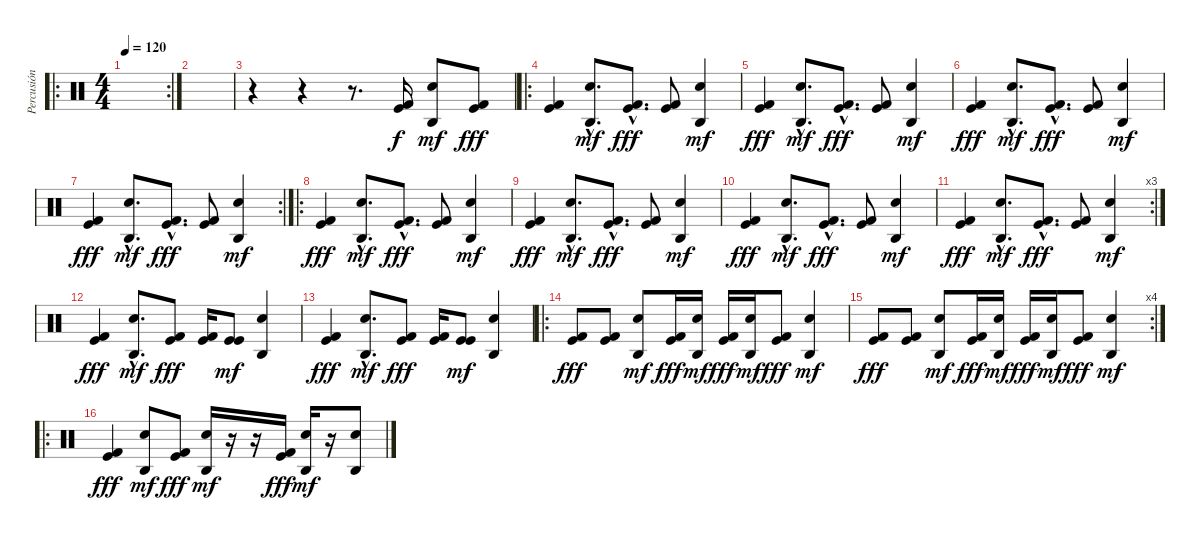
\track ("Percusión" "Percusión") {instrument percussion}
\staff {score}
\articulation defaults
\ro
\rc 2
\ts (4 4)
\tempo 120
\clef neutral
\ks c
|
|
r.4 r.4 r.8{d} ("Kick (hit)" "Kick (hit) 2").16 ("Electric Snare (hit)" "Agogo high (hit)").8{dy mf} ("Kick (hit)" "Kick (hit) 2").8{dy fff} |
\ro
("Kick (hit)" "Kick (hit) 2").4 ("Electric Snare (hit)"{hac} "Agogo high (hit)"{hac}).8{d dy mf} ("Kick (hit)"{hac} "Kick (hit) 2"{hac}).8{d dy fff} ("Kick (hit)" "Kick (hit) 2").8 ("Electric Snare (hit)" "Agogo high (hit)").4{dy mf} |
("Kick (hit)" "Kick (hit) 2").4{dy fff} ("Electric Snare (hit)"{hac} "Agogo high (hit)"{hac}).8{d dy mf} ("Kick (hit)"{hac} "Kick (hit) 2"{hac}).8{d dy fff} ("Kick (hit)" "Kick (hit) 2").8 ("Electric Snare (hit)" "Agogo high (hit)").4{dy mf} |
("Kick (hit)" "Kick (hit) 2").4{dy fff} ("Electric Snare (hit)"{hac} "Agogo high (hit)"{hac}).8{d dy mf} ("Kick (hit)"{hac} "Kick (hit) 2"{hac}).8{d dy fff} ("Kick (hit)" "Kick (hit) 2").8 ("Electric Snare (hit)" "Agogo high (hit)").4{dy mf} |
\rc 2
("Kick (hit)" "Kick (hit) 2").4{dy fff} ("Electric Snare (hit)"{hac} "Agogo high (hit)"{hac}).8{d dy mf} ("Kick (hit)"{hac} "Kick (hit) 2"{hac}).8{d dy fff} ("Kick (hit)" "Kick (hit) 2").8 ("Electric Snare (hit)" "Agogo high (hit)").4{dy mf} |
\ro
("Kick (hit)" "Kick (hit) 2").4{dy fff} ("Electric Snare (hit)"{hac} "Agogo high (hit)"{hac}).8{d dy mf} ("Kick (hit)"{hac} "Kick (hit) 2"{hac}).8{d dy fff} ("Kick (hit)" "Kick (hit) 2").8 ("Electric Snare (hit)" "Agogo high (hit)").4{dy mf} |
("Kick (hit)" "Kick (hit) 2").4{dy fff} ("Electric Snare (hit)"{hac} "Agogo high (hit)"{hac}).8{d dy mf} ("Kick (hit)"{hac} "Kick (hit) 2"{hac}).8{d dy fff} ("Kick (hit)" "Kick (hit) 2").8 ("Electric Snare (hit)" "Agogo high (hit)").4{dy mf} |
("Kick (hit)" "Kick (hit) 2").4{dy fff} ("Electric Snare (hit)"{hac} "Agogo high (hit)"{hac}).8{d dy mf} ("Kick (hit)"{hac} "Kick (hit) 2"{hac}).8{d dy fff} ("Kick (hit)" "Kick (hit) 2").8 ("Electric Snare (hit)" "Agogo high (hit)").4{dy mf} |
\rc 3
("Kick (hit)" "Kick (hit) 2").4{dy fff} ("Electric Snare (hit)"{hac} "Agogo high (hit)"{hac}).8{d dy mf} ("Kick (hit)"{hac} "Kick (hit) 2"{hac}).8{d dy fff} ("Kick (hit)" "Kick (hit) 2").8 ("Electric Snare (hit)" "Agogo high (hit)").4{dy mf} |
("Kick (hit)" "Kick (hit) 2").4{dy fff} ("Electric Snare (hit)"{hac} "Agogo high (hit)"{hac}).8{d dy mf} ("Kick (hit)" "Kick (hit) 2").8{dy fff} ("Kick (hit)" "Kick (hit) 2").16 ("Kick (hit)" "Kick (hit)").8{dy mf} ("Electric Snare (hit)" "Agogo high (hit)").4 |
("Kick (hit)" "Kick (hit) 2").4{dy fff} ("Electric Snare (hit)"{hac} "Agogo high (hit)"{hac}).8{d dy mf} ("Kick (hit)" "Kick (hit) 2").8{dy fff} ("Kick (hit)" "Kick (hit) 2").16 ("Kick (hit)" "Kick (hit)").8{dy mf} ("Electric Snare (hit)" "Agogo high (hit)").4 |
\ro
("Kick (hit)" "Kick (hit) 2").8{dy fff} ("Kick (hit)" "Kick (hit) 2").8 ("Electric Snare (hit)" "Agogo high (hit)").8{dy mf} ("Kick (hit)" "Kick (hit) 2").16{dy fff} ("Electric Snare (hit)" "Agogo high (hit)").16{dy mf} ("Kick (hit)" "Kick (hit) 2").16{dy fff} ("Electric Snare (hit)" "Agogo high (hit)").16{dy mf} ("Kick (hit)" "Kick (hit) 2").8{dy fff} ("Electric Snare (hit)" "Agogo high (hit)").4{dy mf} |
\rc 4
("Kick (hit)" "Kick (hit) 2").8{dy fff} ("Kick (hit)" "Kick (hit) 2").8 ("Electric Snare (hit)" "Agogo high (hit)").8{dy mf} ("Kick (hit)" "Kick (hit) 2").16{dy fff} ("Electric Snare (hit)" "Agogo high (hit)").16{dy mf} ("Kick (hit)" "Kick (hit) 2").16{dy fff} ("Electric Snare (hit)" "Agogo high (hit)").16{dy mf} ("Kick (hit)" "Kick (hit) 2").8{dy fff} ("Electric Snare (hit)" "Agogo high (hit)").4{dy mf} |
\ro
("Kick (hit)" "Kick (hit) 2").4{dy fff} ("Electric Snare (hit)" "Agogo high (hit)").8{dy mf} ("Kick (hit)" "Kick (hit) 2").8{dy fff} ("Electric Snare (hit)" "Agogo high (hit)").16{dy mf} r.16 r.16 ("Kick (hit)" "Kick (hit) 2").16{dy fff} ("Electric Snare (hit)" "Agogo high (hit)").16{dy mf} r.16 ("Electric Snare (hit)" "Agogo high (hit)").8
